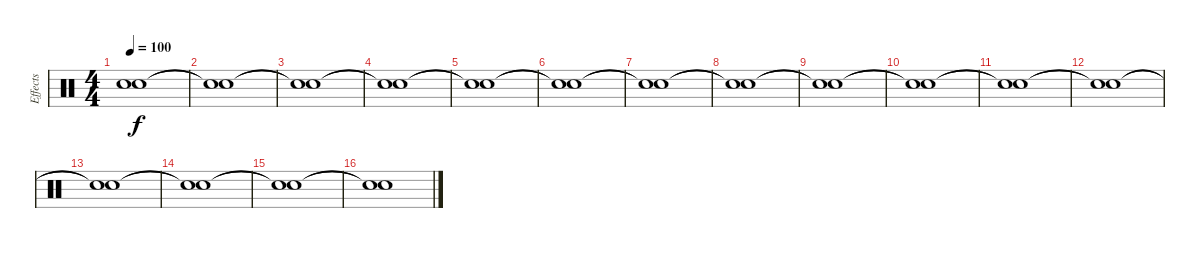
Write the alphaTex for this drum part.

\track ("Effects" "Effects") {instrument percussion}
\staff {score}
\articulation defaults
\ts (4 4)
\tempo 100
\clef neutral
\ks c
("Snare (hit)"{t} "Snare (hit)"{t}).1{dy f} |
("Snare (hit)"{t} "Snare (hit)"{t}).1 |
("Snare (hit)"{t} "Snare (hit)"{t}).1 |
("Snare (hit)"{t} "Snare (hit)"{t}).1 |
("Snare (hit)"{t} "Snare (hit)"{t}).1 |
("Snare (hit)"{t} "Snare (hit)"{t}).1 |
("Snare (hit)"{t} "Snare (hit)"{t}).1 |
("Snare (hit)"{t} "Snare (hit)"{t}).1 |
("Snare (hit)"{t} "Snare (hit)"{t}).1 |
("Snare (hit)"{t} "Snare (hit)"{t}).1 |
("Snare (hit)"{t} "Snare (hit)"{t}).1 |
("Snare (hit)"{t} "Snare (hit)"{t}).1 |
("Snare (hit)"{t} "Snare (hit)"{t}).1 |
("Snare (hit)"{t} "Snare (hit)"{t}).1 |
("Snare (hit)"{t} "Snare (hit)"{t}).1 |
("Snare (hit)"{t} "Snare (hit)"{t}).1
